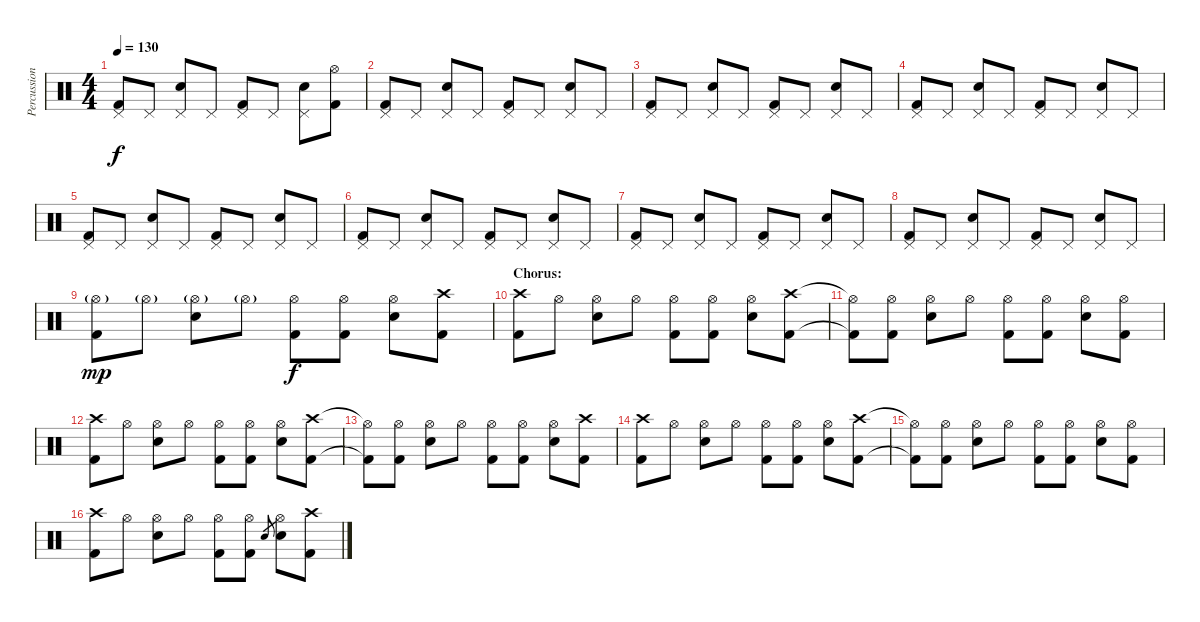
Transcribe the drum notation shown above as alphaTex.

\track ("Percussion" "Percussion") {instrument percussion}
\staff {score}
\articulation defaults
\ts (4 4)
\tempo 130
\clef neutral
\ks c
("Pedal Hi-Hat (hit)" "Kick (hit) 2").8{dy f} "Pedal Hi-Hat (hit)".8 ("Pedal Hi-Hat (hit)" "Electric Snare (hit)").8 "Pedal Hi-Hat (hit)".8 ("Pedal Hi-Hat (hit)" "Kick (hit) 2").8 "Pedal Hi-Hat (hit)".8 ("Pedal Hi-Hat (hit)" "Electric Snare (hit)").8 ("Hi-Hat (open)" "Kick (hit) 2").8 |
("Pedal Hi-Hat (hit)" "Kick (hit) 2").8 "Pedal Hi-Hat (hit)".8 ("Pedal Hi-Hat (hit)" "Electric Snare (hit)").8 "Pedal Hi-Hat (hit)".8 ("Pedal Hi-Hat (hit)" "Kick (hit) 2").8 "Pedal Hi-Hat (hit)".8 ("Pedal Hi-Hat (hit)" "Electric Snare (hit)").8 "Pedal Hi-Hat (hit)".8 |
("Pedal Hi-Hat (hit)" "Kick (hit) 2").8 "Pedal Hi-Hat (hit)".8 ("Pedal Hi-Hat (hit)" "Electric Snare (hit)").8 "Pedal Hi-Hat (hit)".8 ("Pedal Hi-Hat (hit)" "Kick (hit) 2").8 "Pedal Hi-Hat (hit)".8 ("Pedal Hi-Hat (hit)" "Electric Snare (hit)").8 "Pedal Hi-Hat (hit)".8 |
("Pedal Hi-Hat (hit)" "Kick (hit) 2").8 "Pedal Hi-Hat (hit)".8 ("Pedal Hi-Hat (hit)" "Electric Snare (hit)").8 "Pedal Hi-Hat (hit)".8 ("Pedal Hi-Hat (hit)" "Kick (hit) 2").8 "Pedal Hi-Hat (hit)".8 ("Pedal Hi-Hat (hit)" "Electric Snare (hit)").8 "Pedal Hi-Hat (hit)".8 |
("Pedal Hi-Hat (hit)" "Kick (hit) 2").8 "Pedal Hi-Hat (hit)".8 ("Pedal Hi-Hat (hit)" "Electric Snare (hit)").8 "Pedal Hi-Hat (hit)".8 ("Pedal Hi-Hat (hit)" "Kick (hit) 2").8 "Pedal Hi-Hat (hit)".8 ("Pedal Hi-Hat (hit)" "Electric Snare (hit)").8 "Pedal Hi-Hat (hit)".8 |
("Pedal Hi-Hat (hit)" "Kick (hit) 2").8 "Pedal Hi-Hat (hit)".8 ("Pedal Hi-Hat (hit)" "Electric Snare (hit)").8 "Pedal Hi-Hat (hit)".8 ("Pedal Hi-Hat (hit)" "Kick (hit) 2").8 "Pedal Hi-Hat (hit)".8 ("Pedal Hi-Hat (hit)" "Electric Snare (hit)").8 "Pedal Hi-Hat (hit)".8 |
("Pedal Hi-Hat (hit)" "Kick (hit) 2").8 "Pedal Hi-Hat (hit)".8 ("Pedal Hi-Hat (hit)" "Electric Snare (hit)").8 "Pedal Hi-Hat (hit)".8 ("Pedal Hi-Hat (hit)" "Kick (hit) 2").8 "Pedal Hi-Hat (hit)".8 ("Pedal Hi-Hat (hit)" "Electric Snare (hit)").8 "Pedal Hi-Hat (hit)".8 |
("Pedal Hi-Hat (hit)" "Kick (hit) 2").8 "Pedal Hi-Hat (hit)".8 ("Pedal Hi-Hat (hit)" "Electric Snare (hit)").8 "Pedal Hi-Hat (hit)".8 ("Pedal Hi-Hat (hit)" "Kick (hit) 2").8 "Pedal Hi-Hat (hit)".8 ("Pedal Hi-Hat (hit)" "Electric Snare (hit)").8 "Pedal Hi-Hat (hit)".8 |
("Hi-Hat (open)"{g} "Kick (hit) 2").8{dy mp} "Hi-Hat (open)"{g}.8 ("Hi-Hat (open)"{g} "Electric Snare (hit)").8 "Hi-Hat (open)"{g}.8 ("Hi-Hat (open)" "Kick (hit) 2").8{dy f} ("Hi-Hat (open)" "Kick (hit) 2").8 ("Hi-Hat (open)" "Electric Snare (hit)").8 ("Crash high (hit)" "Kick (hit) 2").8 |
\section ("" "Chorus:")
("Crash high (hit)" "Kick (hit) 2").8 "Hi-Hat (open)".8 ("Hi-Hat (open)" "Electric Snare (hit)").8 "Hi-Hat (open)".8 ("Hi-Hat (open)" "Kick (hit) 2").8 ("Hi-Hat (open)" "Kick (hit) 2").8 ("Hi-Hat (open)" "Electric Snare (hit)").8 ("Crash high (hit)" "Kick (hit) 2").8 |
("Hi-Hat (open)"{t} "Kick (hit) 2"{t}).8 ("Hi-Hat (open)" "Kick (hit) 2").8 ("Hi-Hat (open)" "Electric Snare (hit)").8 "Hi-Hat (open)".8 ("Hi-Hat (open)" "Kick (hit) 2").8 ("Hi-Hat (open)" "Kick (hit) 2").8 ("Hi-Hat (open)" "Electric Snare (hit)").8 ("Hi-Hat (open)" "Kick (hit) 2").8 |
("Crash high (hit)" "Kick (hit) 2").8 "Hi-Hat (open)".8 ("Hi-Hat (open)" "Electric Snare (hit)").8 "Hi-Hat (open)".8 ("Hi-Hat (open)" "Kick (hit) 2").8 ("Hi-Hat (open)" "Kick (hit) 2").8 ("Hi-Hat (open)" "Electric Snare (hit)").8 ("Crash high (hit)" "Kick (hit) 2").8 |
("Hi-Hat (open)"{t} "Kick (hit) 2"{t}).8 ("Hi-Hat (open)" "Kick (hit) 2").8 ("Hi-Hat (open)" "Electric Snare (hit)").8 "Hi-Hat (open)".8 ("Hi-Hat (open)" "Kick (hit) 2").8 ("Hi-Hat (open)" "Kick (hit) 2").8 ("Hi-Hat (open)" "Electric Snare (hit)").8 ("Crash high (hit)" "Kick (hit) 2").8 |
("Crash high (hit)" "Kick (hit) 2").8 "Hi-Hat (open)".8 ("Hi-Hat (open)" "Electric Snare (hit)").8 "Hi-Hat (open)".8 ("Hi-Hat (open)" "Kick (hit) 2").8 ("Hi-Hat (open)" "Kick (hit) 2").8 ("Hi-Hat (open)" "Electric Snare (hit)").8 ("Crash high (hit)" "Kick (hit) 2").8 |
("Hi-Hat (open)"{t} "Kick (hit) 2"{t}).8 ("Hi-Hat (open)" "Kick (hit) 2").8 ("Hi-Hat (open)" "Electric Snare (hit)").8 "Hi-Hat (open)".8 ("Hi-Hat (open)" "Kick (hit) 2").8 ("Hi-Hat (open)" "Kick (hit) 2").8 ("Hi-Hat (open)" "Electric Snare (hit)").8 ("Hi-Hat (open)" "Kick (hit) 2").8 |
("Crash high (hit)" "Kick (hit) 2").8 "Hi-Hat (open)".8 ("Hi-Hat (open)" "Electric Snare (hit)").8 "Hi-Hat (open)".8 ("Hi-Hat (open)" "Kick (hit) 2").8 ("Hi-Hat (open)" "Kick (hit) 2").8 "Electric Snare (hit)".8{gr} ("Hi-Hat (open)" "Electric Snare (hit)").8 ("Crash high (hit)" "Kick (hit) 2").8
